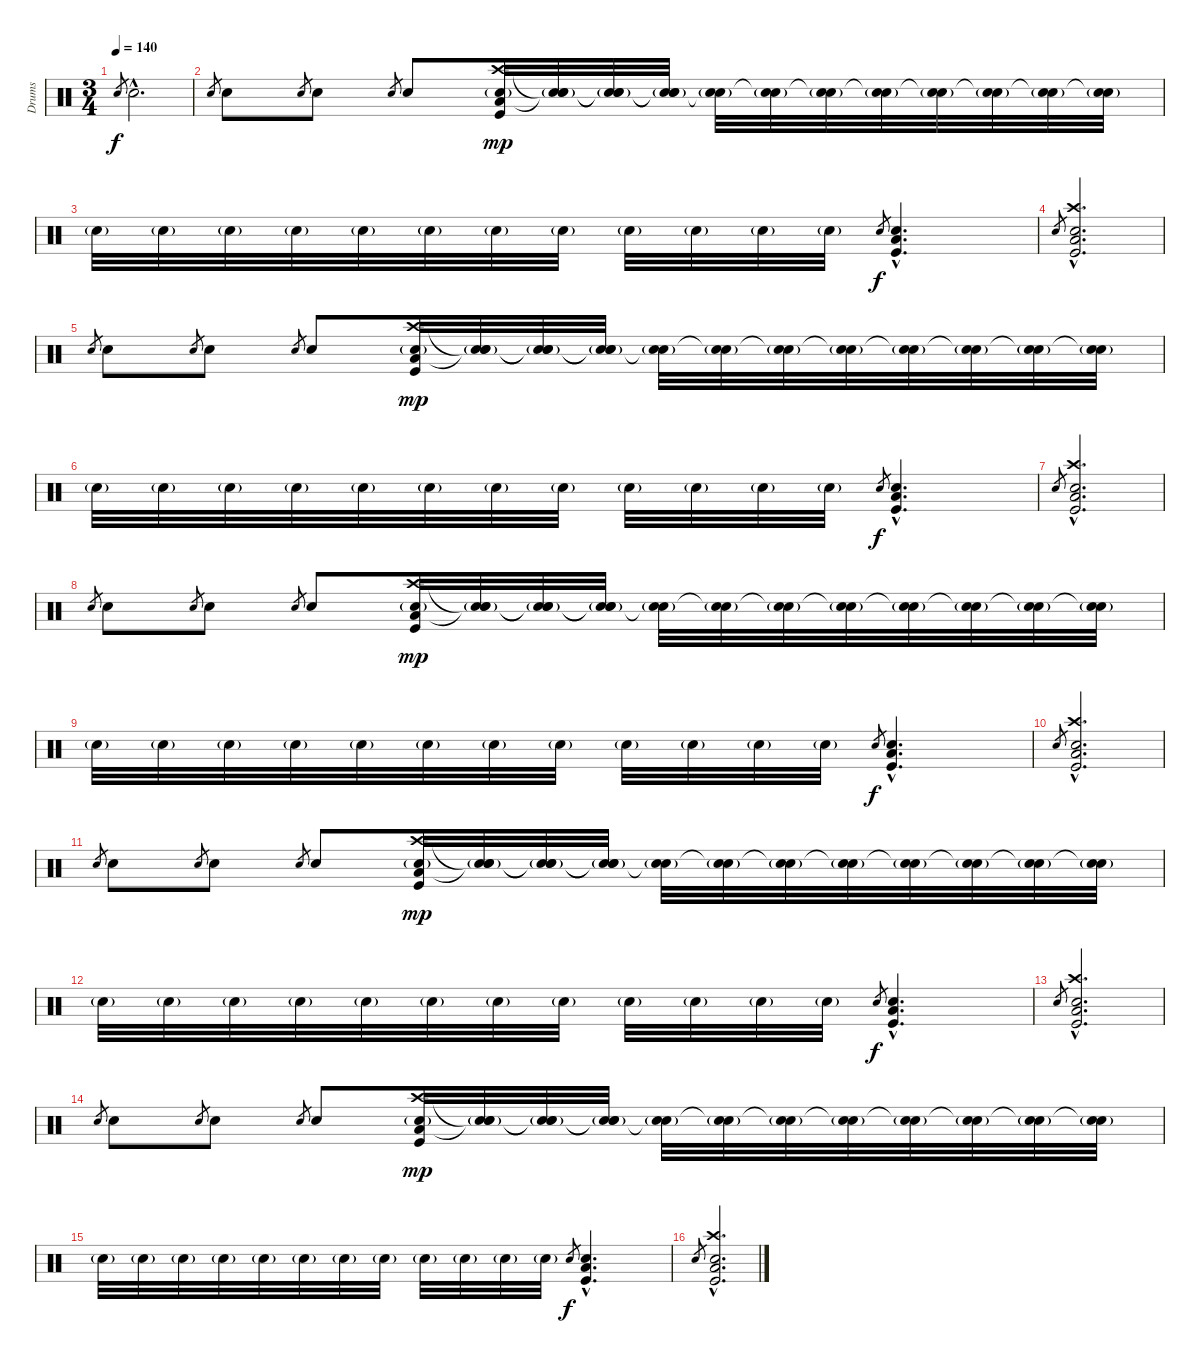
\track ("Drums" "Drums") {instrument percussion}
\staff {score}
\articulation defaults
\ts (3 4)
\tempo 140
\clef neutral
\ks c "Snare (hit) 2".8{gr dy f} "Snare (hit) 2"{hac}.2{d}
|
"Snare (hit) 2".8{gr} "Snare (hit) 2".8 "Snare (hit) 2".8{gr} "Snare (hit) 2".8 "Snare (hit) 2".8{gr} "Snare (hit) 2".8 ("Crash high (hit)" "Snare (hit) 2"{g} "Low Floor Tom (hit)" "Kick (hit)").32{dy mp} ("Snare (hit)"{t} "Snare (hit) 2"{g} "Snare (hit)"{t}).32 ("Snare (hit)"{t} "Snare (hit) 2"{g} "Snare (hit)"{t}).32 ("Snare (hit)"{t} "Snare (hit) 2"{g} "Snare (hit)"{t}).32 ("Snare (hit)"{t} "Snare (hit) 2"{g}).32 ("Snare (hit)"{t} "Snare (hit) 2"{g}).32 ("Snare (hit)"{t} "Snare (hit) 2"{g}).32 ("Snare (hit)"{t} "Snare (hit) 2"{g}).32 ("Snare (hit)"{t} "Snare (hit) 2"{g}).32 ("Snare (hit)"{t} "Snare (hit) 2"{g}).32 ("Snare (hit)"{t} "Snare (hit) 2"{g}).32 ("Snare (hit)"{t} "Snare (hit) 2"{g}).32 |
"Snare (hit) 2"{g}.32 "Snare (hit) 2"{g}.32 "Snare (hit) 2"{g}.32 "Snare (hit) 2"{g}.32 "Snare (hit) 2"{g}.32 "Snare (hit) 2"{g}.32 "Snare (hit) 2"{g}.32 "Snare (hit) 2"{g}.32 "Snare (hit) 2"{g}.32 "Snare (hit) 2"{g}.32 "Snare (hit) 2"{g}.32 "Snare (hit) 2"{g}.32 "Snare (hit) 2".8{gr dy f} ("Snare (hit) 2"{hac} "Low Floor Tom (hit)"{hac} "Kick (hit)"{hac}).4{d} |
"Snare (hit) 2".8{gr} ("Crash high (hit)"{hac} "Snare (hit) 2"{hac} "Low Floor Tom (hit)"{hac} "Kick (hit)"{hac}).2{d} |
"Snare (hit) 2".8{gr} "Snare (hit) 2".8 "Snare (hit) 2".8{gr} "Snare (hit) 2".8 "Snare (hit) 2".8{gr} "Snare (hit) 2".8 ("Crash high (hit)" "Snare (hit) 2"{g} "Low Floor Tom (hit)" "Kick (hit)").32{dy mp} ("Snare (hit)"{t} "Snare (hit) 2"{g} "Snare (hit)"{t}).32 ("Snare (hit)"{t} "Snare (hit) 2"{g} "Snare (hit)"{t}).32 ("Snare (hit)"{t} "Snare (hit) 2"{g} "Snare (hit)"{t}).32 ("Snare (hit)"{t} "Snare (hit) 2"{g}).32 ("Snare (hit)"{t} "Snare (hit) 2"{g}).32 ("Snare (hit)"{t} "Snare (hit) 2"{g}).32 ("Snare (hit)"{t} "Snare (hit) 2"{g}).32 ("Snare (hit)"{t} "Snare (hit) 2"{g}).32 ("Snare (hit)"{t} "Snare (hit) 2"{g}).32 ("Snare (hit)"{t} "Snare (hit) 2"{g}).32 ("Snare (hit)"{t} "Snare (hit) 2"{g}).32 |
"Snare (hit) 2"{g}.32 "Snare (hit) 2"{g}.32 "Snare (hit) 2"{g}.32 "Snare (hit) 2"{g}.32 "Snare (hit) 2"{g}.32 "Snare (hit) 2"{g}.32 "Snare (hit) 2"{g}.32 "Snare (hit) 2"{g}.32 "Snare (hit) 2"{g}.32 "Snare (hit) 2"{g}.32 "Snare (hit) 2"{g}.32 "Snare (hit) 2"{g}.32 "Snare (hit) 2".8{gr dy f} ("Snare (hit) 2"{hac} "Low Floor Tom (hit)"{hac} "Kick (hit)"{hac}).4{d} |
"Snare (hit) 2".8{gr} ("Crash high (hit)"{hac} "Snare (hit) 2"{hac} "Low Floor Tom (hit)"{hac} "Kick (hit)"{hac}).2{d} |
"Snare (hit) 2".8{gr} "Snare (hit) 2".8 "Snare (hit) 2".8{gr} "Snare (hit) 2".8 "Snare (hit) 2".8{gr} "Snare (hit) 2".8 ("Crash high (hit)" "Snare (hit) 2"{g} "Low Floor Tom (hit)" "Kick (hit)").32{dy mp} ("Snare (hit)"{t} "Snare (hit) 2"{g} "Snare (hit)"{t}).32 ("Snare (hit)"{t} "Snare (hit) 2"{g} "Snare (hit)"{t}).32 ("Snare (hit)"{t} "Snare (hit) 2"{g} "Snare (hit)"{t}).32 ("Snare (hit)"{t} "Snare (hit) 2"{g}).32 ("Snare (hit)"{t} "Snare (hit) 2"{g}).32 ("Snare (hit)"{t} "Snare (hit) 2"{g}).32 ("Snare (hit)"{t} "Snare (hit) 2"{g}).32 ("Snare (hit)"{t} "Snare (hit) 2"{g}).32 ("Snare (hit)"{t} "Snare (hit) 2"{g}).32 ("Snare (hit)"{t} "Snare (hit) 2"{g}).32 ("Snare (hit)"{t} "Snare (hit) 2"{g}).32 |
"Snare (hit) 2"{g}.32 "Snare (hit) 2"{g}.32 "Snare (hit) 2"{g}.32 "Snare (hit) 2"{g}.32 "Snare (hit) 2"{g}.32 "Snare (hit) 2"{g}.32 "Snare (hit) 2"{g}.32 "Snare (hit) 2"{g}.32 "Snare (hit) 2"{g}.32 "Snare (hit) 2"{g}.32 "Snare (hit) 2"{g}.32 "Snare (hit) 2"{g}.32 "Snare (hit) 2".8{gr dy f} ("Snare (hit) 2"{hac} "Low Floor Tom (hit)"{hac} "Kick (hit)"{hac}).4{d} |
"Snare (hit) 2".8{gr} ("Crash high (hit)"{hac} "Snare (hit) 2"{hac} "Low Floor Tom (hit)"{hac} "Kick (hit)"{hac}).2{d} |
"Snare (hit) 2".8{gr} "Snare (hit) 2".8 "Snare (hit) 2".8{gr} "Snare (hit) 2".8 "Snare (hit) 2".8{gr} "Snare (hit) 2".8 ("Crash high (hit)" "Snare (hit) 2"{g} "Low Floor Tom (hit)" "Kick (hit)").32{dy mp} ("Snare (hit)"{t} "Snare (hit) 2"{g} "Snare (hit)"{t}).32 ("Snare (hit)"{t} "Snare (hit) 2"{g} "Snare (hit)"{t}).32 ("Snare (hit)"{t} "Snare (hit) 2"{g} "Snare (hit)"{t}).32 ("Snare (hit)"{t} "Snare (hit) 2"{g}).32 ("Snare (hit)"{t} "Snare (hit) 2"{g}).32 ("Snare (hit)"{t} "Snare (hit) 2"{g}).32 ("Snare (hit)"{t} "Snare (hit) 2"{g}).32 ("Snare (hit)"{t} "Snare (hit) 2"{g}).32 ("Snare (hit)"{t} "Snare (hit) 2"{g}).32 ("Snare (hit)"{t} "Snare (hit) 2"{g}).32 ("Snare (hit)"{t} "Snare (hit) 2"{g}).32 |
"Snare (hit) 2"{g}.32 "Snare (hit) 2"{g}.32 "Snare (hit) 2"{g}.32 "Snare (hit) 2"{g}.32 "Snare (hit) 2"{g}.32 "Snare (hit) 2"{g}.32 "Snare (hit) 2"{g}.32 "Snare (hit) 2"{g}.32 "Snare (hit) 2"{g}.32 "Snare (hit) 2"{g}.32 "Snare (hit) 2"{g}.32 "Snare (hit) 2"{g}.32 "Snare (hit) 2".8{gr dy f} ("Snare (hit) 2"{hac} "Low Floor Tom (hit)"{hac} "Kick (hit)"{hac}).4{d} |
"Snare (hit) 2".8{gr} ("Crash high (hit)"{hac} "Snare (hit) 2"{hac} "Low Floor Tom (hit)"{hac} "Kick (hit)"{hac}).2{d} |
"Snare (hit) 2".8{gr} "Snare (hit) 2".8 "Snare (hit) 2".8{gr} "Snare (hit) 2".8 "Snare (hit) 2".8{gr} "Snare (hit) 2".8 ("Crash high (hit)" "Snare (hit) 2"{g} "Low Floor Tom (hit)" "Kick (hit)").32{dy mp} ("Snare (hit)"{t} "Snare (hit) 2"{g} "Snare (hit)"{t}).32 ("Snare (hit)"{t} "Snare (hit) 2"{g} "Snare (hit)"{t}).32 ("Snare (hit)"{t} "Snare (hit) 2"{g} "Snare (hit)"{t}).32 ("Snare (hit)"{t} "Snare (hit) 2"{g}).32 ("Snare (hit)"{t} "Snare (hit) 2"{g}).32 ("Snare (hit)"{t} "Snare (hit) 2"{g}).32 ("Snare (hit)"{t} "Snare (hit) 2"{g}).32 ("Snare (hit)"{t} "Snare (hit) 2"{g}).32 ("Snare (hit)"{t} "Snare (hit) 2"{g}).32 ("Snare (hit)"{t} "Snare (hit) 2"{g}).32 ("Snare (hit)"{t} "Snare (hit) 2"{g}).32 |
"Snare (hit) 2"{g}.32 "Snare (hit) 2"{g}.32 "Snare (hit) 2"{g}.32 "Snare (hit) 2"{g}.32 "Snare (hit) 2"{g}.32 "Snare (hit) 2"{g}.32 "Snare (hit) 2"{g}.32 "Snare (hit) 2"{g}.32 "Snare (hit) 2"{g}.32 "Snare (hit) 2"{g}.32 "Snare (hit) 2"{g}.32 "Snare (hit) 2"{g}.32 "Snare (hit) 2".8{gr dy f} ("Snare (hit) 2"{hac} "Low Floor Tom (hit)"{hac} "Kick (hit)"{hac}).4{d} |
"Snare (hit) 2".8{gr} ("Crash high (hit)"{hac} "Snare (hit) 2"{hac} "Low Floor Tom (hit)"{hac} "Kick (hit)"{hac}).2{d}
